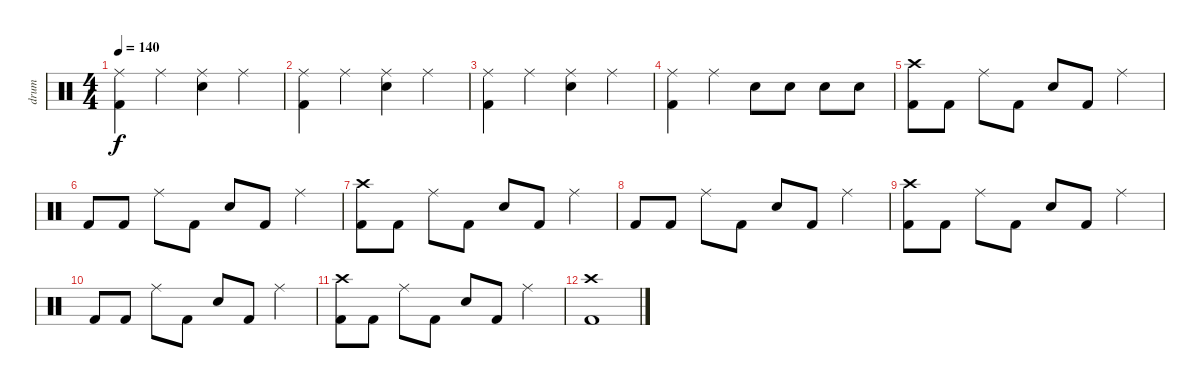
\track ("drum" "drum") {instrument percussion}
\staff {score}
\articulation defaults
\ts (4 4)
\tempo 140
\clef neutral
\ks c
("Ride (middle)" "Kick (hit) 2").4{dy f} "Ride (middle)".4 ("Ride (middle)" "Electric Snare (hit)").4 "Ride (middle)".4 |
("Ride (middle)" "Kick (hit) 2").4 "Ride (middle)".4 ("Ride (middle)" "Electric Snare (hit)").4 "Ride (middle)".4 |
("Ride (middle)" "Kick (hit) 2").4 "Ride (middle)".4 ("Ride (middle)" "Electric Snare (hit)").4 "Ride (middle)".4 |
("Ride (middle)" "Kick (hit) 2").4 "Ride (middle)".4 "Electric Snare (hit)".8 "Electric Snare (hit)".8 "Electric Snare (hit)".8 "Electric Snare (hit)".8 |
("Crash high (hit)" "Kick (hit) 2").8 "Kick (hit) 2".8 "Ride (middle)".8 "Kick (hit) 2".8 "Electric Snare (hit)".8 "Kick (hit) 2".8 "Ride (middle)".4 |
"Kick (hit) 2".8 "Kick (hit) 2".8 "Ride (middle)".8 "Kick (hit) 2".8 "Electric Snare (hit)".8 "Kick (hit) 2".8 "Ride (middle)".4 |
("Crash high (hit)" "Kick (hit) 2").8 "Kick (hit) 2".8 "Ride (middle)".8 "Kick (hit) 2".8 "Electric Snare (hit)".8 "Kick (hit) 2".8 "Ride (middle)".4 |
"Kick (hit) 2".8 "Kick (hit) 2".8 "Ride (middle)".8 "Kick (hit) 2".8 "Electric Snare (hit)".8 "Kick (hit) 2".8 "Ride (middle)".4 |
("Crash high (hit)" "Kick (hit) 2").8 "Kick (hit) 2".8 "Ride (middle)".8 "Kick (hit) 2".8 "Electric Snare (hit)".8 "Kick (hit) 2".8 "Ride (middle)".4 |
"Kick (hit) 2".8 "Kick (hit) 2".8 "Ride (middle)".8 "Kick (hit) 2".8 "Electric Snare (hit)".8 "Kick (hit) 2".8 "Ride (middle)".4 |
("Crash high (hit)" "Kick (hit) 2").8 "Kick (hit) 2".8 "Ride (middle)".8 "Kick (hit) 2".8 "Electric Snare (hit)".8 "Kick (hit) 2".8 "Ride (middle)".4 |
("Crash high (hit)" "Kick (hit) 2").1
